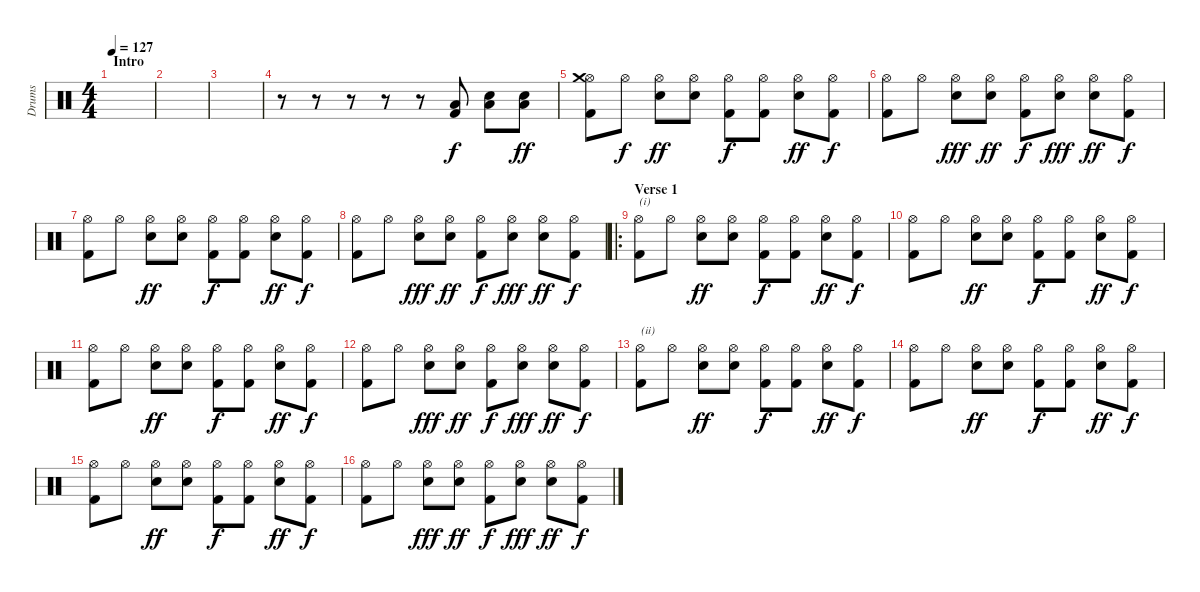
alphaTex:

\track ("Drums" "Drums") {instrument percussion}
\staff {score}
\articulation defaults
\ts (4 4)
\section ("" "Intro")
\tempo 127
\clef neutral
\ks c
|
|
|
r.8 r.8 r.8 r.8 r.8 ("Low Floor Tom (hit)" "Kick (hit) 2").8 ("Low Floor Tom (hit)" "Electric Snare (hit)").8 ("Low Floor Tom (hit)" "Electric Snare (hit)").8{dy ff} |
("Hi-Hat (open)" "Crash medium (hit)" "Kick (hit) 2").8 "Hi-Hat (open)".8{dy f} ("Hi-Hat (open)" "Electric Snare (hit)").8{dy ff} ("Hi-Hat (open)" "Electric Snare (hit)").8 ("Hi-Hat (open)" "Kick (hit) 2").8{dy f} ("Hi-Hat (open)" "Kick (hit) 2").8 ("Hi-Hat (open)" "Electric Snare (hit)").8{dy ff} ("Hi-Hat (open)" "Kick (hit) 2").8{dy f} |
("Hi-Hat (open)" "Kick (hit) 2").8 "Hi-Hat (open)".8 ("Hi-Hat (open)" "Electric Snare (hit)").8{dy fff} ("Hi-Hat (open)" "Electric Snare (hit)").8{dy ff} ("Hi-Hat (open)" "Kick (hit) 2").8{dy f} ("Hi-Hat (open)" "Electric Snare (hit)").8{dy fff} ("Hi-Hat (open)" "Electric Snare (hit)").8{dy ff} ("Hi-Hat (open)" "Kick (hit) 2").8{dy f} |
("Hi-Hat (open)" "Kick (hit) 2").8 "Hi-Hat (open)".8 ("Hi-Hat (open)" "Electric Snare (hit)").8{dy ff} ("Hi-Hat (open)" "Electric Snare (hit)").8 ("Hi-Hat (open)" "Kick (hit) 2").8{dy f} ("Hi-Hat (open)" "Kick (hit) 2").8 ("Hi-Hat (open)" "Electric Snare (hit)").8{dy ff} ("Hi-Hat (open)" "Kick (hit) 2").8{dy f} |
("Hi-Hat (open)" "Kick (hit) 2").8 "Hi-Hat (open)".8 ("Hi-Hat (open)" "Electric Snare (hit)").8{dy fff} ("Hi-Hat (open)" "Electric Snare (hit)").8{dy ff} ("Hi-Hat (open)" "Kick (hit) 2").8{dy f} ("Hi-Hat (open)" "Electric Snare (hit)").8{dy fff} ("Hi-Hat (open)" "Electric Snare (hit)").8{dy ff} ("Hi-Hat (open)" "Kick (hit) 2").8{dy f} |
\ro
\section ("" "Verse 1")
("Hi-Hat (open)" "Kick (hit) 2").8{txt "(i)"} "Hi-Hat (open)".8 ("Hi-Hat (open)" "Electric Snare (hit)").8{dy ff} ("Hi-Hat (open)" "Electric Snare (hit)").8 ("Hi-Hat (open)" "Kick (hit) 2").8{dy f} ("Hi-Hat (open)" "Kick (hit) 2").8 ("Hi-Hat (open)" "Electric Snare (hit)").8{dy ff} ("Hi-Hat (open)" "Kick (hit) 2").8{dy f} |
("Hi-Hat (open)" "Kick (hit) 2").8 "Hi-Hat (open)".8 ("Hi-Hat (open)" "Electric Snare (hit)").8{dy ff} ("Hi-Hat (open)" "Electric Snare (hit)").8 ("Hi-Hat (open)" "Kick (hit) 2").8{dy f} ("Hi-Hat (open)" "Kick (hit) 2").8 ("Hi-Hat (open)" "Electric Snare (hit)").8{dy ff} ("Hi-Hat (open)" "Kick (hit) 2").8{dy f} |
("Hi-Hat (open)" "Kick (hit) 2").8 "Hi-Hat (open)".8 ("Hi-Hat (open)" "Electric Snare (hit)").8{dy ff} ("Hi-Hat (open)" "Electric Snare (hit)").8 ("Hi-Hat (open)" "Kick (hit) 2").8{dy f} ("Hi-Hat (open)" "Kick (hit) 2").8 ("Hi-Hat (open)" "Electric Snare (hit)").8{dy ff} ("Hi-Hat (open)" "Kick (hit) 2").8{dy f} |
("Hi-Hat (open)" "Kick (hit) 2").8 "Hi-Hat (open)".8 ("Hi-Hat (open)" "Electric Snare (hit)").8{dy fff} ("Hi-Hat (open)" "Electric Snare (hit)").8{dy ff} ("Hi-Hat (open)" "Kick (hit) 2").8{dy f} ("Hi-Hat (open)" "Electric Snare (hit)").8{dy fff} ("Hi-Hat (open)" "Electric Snare (hit)").8{dy ff} ("Hi-Hat (open)" "Kick (hit) 2").8{dy f} |
("Hi-Hat (open)" "Kick (hit) 2").8{txt "(ii)"} "Hi-Hat (open)".8 ("Hi-Hat (open)" "Electric Snare (hit)").8{dy ff} ("Hi-Hat (open)" "Electric Snare (hit)").8 ("Hi-Hat (open)" "Kick (hit) 2").8{dy f} ("Hi-Hat (open)" "Kick (hit) 2").8 ("Hi-Hat (open)" "Electric Snare (hit)").8{dy ff} ("Hi-Hat (open)" "Kick (hit) 2").8{dy f} |
("Hi-Hat (open)" "Kick (hit) 2").8 "Hi-Hat (open)".8 ("Hi-Hat (open)" "Electric Snare (hit)").8{dy ff} ("Hi-Hat (open)" "Electric Snare (hit)").8 ("Hi-Hat (open)" "Kick (hit) 2").8{dy f} ("Hi-Hat (open)" "Kick (hit) 2").8 ("Hi-Hat (open)" "Electric Snare (hit)").8{dy ff} ("Hi-Hat (open)" "Kick (hit) 2").8{dy f} |
("Hi-Hat (open)" "Kick (hit) 2").8 "Hi-Hat (open)".8 ("Hi-Hat (open)" "Electric Snare (hit)").8{dy ff} ("Hi-Hat (open)" "Electric Snare (hit)").8 ("Hi-Hat (open)" "Kick (hit) 2").8{dy f} ("Hi-Hat (open)" "Kick (hit) 2").8 ("Hi-Hat (open)" "Electric Snare (hit)").8{dy ff} ("Hi-Hat (open)" "Kick (hit) 2").8{dy f} |
("Hi-Hat (open)" "Kick (hit) 2").8 "Hi-Hat (open)".8 ("Hi-Hat (open)" "Electric Snare (hit)").8{dy fff} ("Hi-Hat (open)" "Electric Snare (hit)").8{dy ff} ("Hi-Hat (open)" "Kick (hit) 2").8{dy f} ("Hi-Hat (open)" "Electric Snare (hit)").8{dy fff} ("Hi-Hat (open)" "Electric Snare (hit)").8{dy ff} ("Hi-Hat (open)" "Kick (hit) 2").8{dy f}
